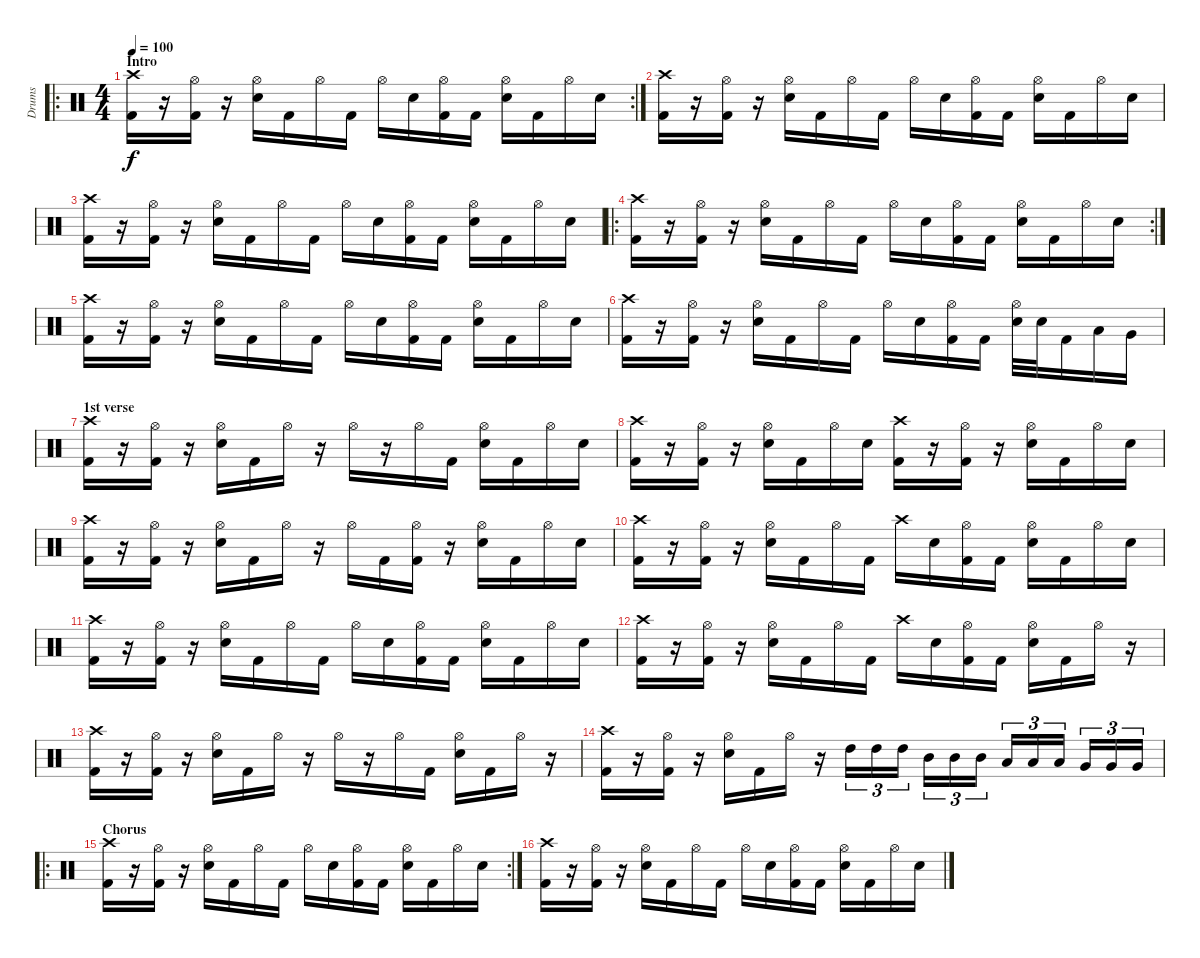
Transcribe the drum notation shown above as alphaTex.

\track ("Drums" "Drums") {instrument percussion}
\staff {score}
\articulation defaults
\ro
\rc 2
\ts (4 4)
\section ("" "Intro")
\tempo 100
\clef neutral
\ks c
("Crash high (hit)" "Kick (hit) 2").16{dy f} r.16 ("Hi-Hat (open)" "Kick (hit) 2").16 r.16 ("Hi-Hat (open)" "Electric Snare (hit)").16 "Kick (hit) 2".16 "Hi-Hat (open)".16 "Kick (hit) 2".16 "Hi-Hat (open)".16 "Electric Snare (hit)".16 ("Hi-Hat (open)" "Kick (hit) 2").16 "Kick (hit) 2".16 ("Hi-Hat (open)" "Electric Snare (hit)").16 "Kick (hit) 2".16 "Hi-Hat (open)".16 "Electric Snare (hit)".16 |
("Crash high (hit)" "Kick (hit) 2").16 r.16 ("Hi-Hat (open)" "Kick (hit) 2").16 r.16 ("Hi-Hat (open)" "Electric Snare (hit)").16 "Kick (hit) 2".16 "Hi-Hat (open)".16 "Kick (hit) 2".16 "Hi-Hat (open)".16 "Electric Snare (hit)".16 ("Hi-Hat (open)" "Kick (hit) 2").16 "Kick (hit) 2".16 ("Hi-Hat (open)" "Electric Snare (hit)").16 "Kick (hit) 2".16 "Hi-Hat (open)".16 "Electric Snare (hit)".16 |
("Crash high (hit)" "Kick (hit) 2").16 r.16 ("Hi-Hat (open)" "Kick (hit) 2").16 r.16 ("Hi-Hat (open)" "Electric Snare (hit)").16 "Kick (hit) 2".16 "Hi-Hat (open)".16 "Kick (hit) 2".16 "Hi-Hat (open)".16 "Electric Snare (hit)".16 ("Hi-Hat (open)" "Kick (hit) 2").16 "Kick (hit) 2".16 ("Hi-Hat (open)" "Electric Snare (hit)").16 "Kick (hit) 2".16 "Hi-Hat (open)".16 "Electric Snare (hit)".16 |
\ro
\rc 2
("Crash high (hit)" "Kick (hit) 2").16 r.16 ("Hi-Hat (open)" "Kick (hit) 2").16 r.16 ("Hi-Hat (open)" "Electric Snare (hit)").16 "Kick (hit) 2".16 "Hi-Hat (open)".16 "Kick (hit) 2".16 "Hi-Hat (open)".16 "Electric Snare (hit)".16 ("Hi-Hat (open)" "Kick (hit) 2").16 "Kick (hit) 2".16 ("Hi-Hat (open)" "Electric Snare (hit)").16 "Kick (hit) 2".16 "Hi-Hat (open)".16 "Electric Snare (hit)".16 |
("Crash high (hit)" "Kick (hit) 2").16 r.16 ("Hi-Hat (open)" "Kick (hit) 2").16 r.16 ("Hi-Hat (open)" "Electric Snare (hit)").16 "Kick (hit) 2".16 "Hi-Hat (open)".16 "Kick (hit) 2".16 "Hi-Hat (open)".16 "Electric Snare (hit)".16 ("Hi-Hat (open)" "Kick (hit) 2").16 "Kick (hit) 2".16 ("Hi-Hat (open)" "Electric Snare (hit)").16 "Kick (hit) 2".16 "Hi-Hat (open)".16 "Electric Snare (hit)".16 |
("Crash high (hit)" "Kick (hit) 2").16 r.16 ("Hi-Hat (open)" "Kick (hit) 2").16 r.16 ("Hi-Hat (open)" "Electric Snare (hit)").16 "Kick (hit) 2".16 "Hi-Hat (open)".16 "Kick (hit) 2".16 "Hi-Hat (open)".16 "Electric Snare (hit)".16 ("Hi-Hat (open)" "Kick (hit) 2").16 "Kick (hit) 2".16 ("Hi-Hat (open)" "Electric Snare (hit)").32 "Electric Snare (hit)".32 "Kick (hit) 2".16 "Low Tom (hit)".16 "Very Low Tom (hit)".16 |
\section ("" "1st verse")
("Crash high (hit)" "Kick (hit) 2").16 r.16 ("Hi-Hat (open)" "Kick (hit) 2").16 r.16 ("Hi-Hat (open)" "Electric Snare (hit)").16 "Kick (hit) 2".16 "Hi-Hat (open)".16 r.16 "Hi-Hat (open)".16 r.16 "Hi-Hat (open)".16 "Kick (hit) 2".16 ("Hi-Hat (open)" "Electric Snare (hit)").16 "Kick (hit) 2".16 "Hi-Hat (open)".16 "Electric Snare (hit)".16 |
("Crash high (hit)" "Kick (hit) 2").16 r.16 ("Hi-Hat (open)" "Kick (hit) 2").16 r.16 ("Hi-Hat (open)" "Electric Snare (hit)").16 "Kick (hit) 2".16 "Hi-Hat (open)".16 "Electric Snare (hit)".16 ("Crash high (hit)" "Kick (hit) 2").16 r.16 ("Hi-Hat (open)" "Kick (hit) 2").16 r.16 ("Hi-Hat (open)" "Electric Snare (hit)").16 "Kick (hit) 2".16 "Hi-Hat (open)".16 "Electric Snare (hit)".16 |
("Crash high (hit)" "Kick (hit) 2").16 r.16 ("Hi-Hat (open)" "Kick (hit) 2").16 r.16 ("Hi-Hat (open)" "Electric Snare (hit)").16 "Kick (hit) 2".16 "Hi-Hat (open)".16 r.16 "Hi-Hat (open)".16 "Kick (hit) 2".16 ("Hi-Hat (open)" "Kick (hit) 2").16 r.16 ("Hi-Hat (open)" "Electric Snare (hit)").16 "Kick (hit) 2".16 "Hi-Hat (open)".16 "Electric Snare (hit)".16 |
("Crash high (hit)" "Kick (hit) 2").16 r.16 ("Hi-Hat (open)" "Kick (hit) 2").16 r.16 ("Hi-Hat (open)" "Electric Snare (hit)").16 "Kick (hit) 2".16 "Hi-Hat (open)".16 "Kick (hit) 2".16 "Crash high (hit)".16 "Electric Snare (hit)".16 ("Hi-Hat (open)" "Kick (hit) 2").16 "Kick (hit) 2".16 ("Hi-Hat (open)" "Electric Snare (hit)").16 "Kick (hit) 2".16 "Hi-Hat (open)".16 "Electric Snare (hit)".16 |
("Crash high (hit)" "Kick (hit) 2").16 r.16 ("Hi-Hat (open)" "Kick (hit) 2").16 r.16 ("Hi-Hat (open)" "Electric Snare (hit)").16 "Kick (hit) 2".16 "Hi-Hat (open)".16 "Kick (hit) 2".16 "Hi-Hat (open)".16 "Electric Snare (hit)".16 ("Hi-Hat (open)" "Kick (hit) 2").16 "Kick (hit) 2".16 ("Hi-Hat (open)" "Electric Snare (hit)").16 "Kick (hit) 2".16 "Hi-Hat (open)".16 "Electric Snare (hit)".16 |
("Crash high (hit)" "Kick (hit) 2").16 r.16 ("Hi-Hat (open)" "Kick (hit) 2").16 r.16 ("Hi-Hat (open)" "Electric Snare (hit)").16 "Kick (hit) 2".16 "Hi-Hat (open)".16 "Kick (hit) 2".16 "Crash high (hit)".16 "Electric Snare (hit)".16 ("Hi-Hat (open)" "Kick (hit) 2").16 "Kick (hit) 2".16 ("Hi-Hat (open)" "Electric Snare (hit)").16 "Kick (hit) 2".16 "Hi-Hat (open)".16 r.16 |
("Crash high (hit)" "Kick (hit) 2").16 r.16 ("Hi-Hat (open)" "Kick (hit) 2").16 r.16 ("Hi-Hat (open)" "Electric Snare (hit)").16 "Kick (hit) 2".16 "Hi-Hat (open)".16 r.16 "Hi-Hat (open)".16 r.16 "Hi-Hat (open)".16 "Kick (hit) 2".16 ("Hi-Hat (open)" "Electric Snare (hit)").16 "Kick (hit) 2".16 "Hi-Hat (open)".16 r.16 |
("Crash high (hit)" "Kick (hit) 2").16 r.16 ("Hi-Hat (open)" "Kick (hit) 2").16 r.16 ("Hi-Hat (open)" "Electric Snare (hit)").16 "Kick (hit) 2".16 "Hi-Hat (open)".16 r.16 "High Tom (hit)".16{tu (3 2)} "High Tom (hit)".16{tu (3 2)} "High Tom (hit)".16{tu (3 2)} "Mid Tom (hit)".16{tu (3 2)} "Mid Tom (hit)".16{tu (3 2)} "Mid Tom (hit)".16{tu (3 2)} "Low Tom (hit)".16{tu (3 2)} "Low Tom (hit)".16{tu (3 2)} "Low Tom (hit)".16{tu (3 2)} "Very Low Tom (hit)".16{tu (3 2)} "Very Low Tom (hit)".16{tu (3 2)} "Very Low Tom (hit)".16{tu (3 2)} |
\ro
\rc 2
\section ("" "Chorus")
("Crash high (hit)" "Kick (hit) 2").16 r.16 ("Hi-Hat (open)" "Kick (hit) 2").16 r.16 ("Hi-Hat (open)" "Electric Snare (hit)").16 "Kick (hit) 2".16 "Hi-Hat (open)".16 "Kick (hit) 2".16 "Hi-Hat (open)".16 "Electric Snare (hit)".16 ("Hi-Hat (open)" "Kick (hit) 2").16 "Kick (hit) 2".16 ("Hi-Hat (open)" "Electric Snare (hit)").16 "Kick (hit) 2".16 "Hi-Hat (open)".16 "Electric Snare (hit)".16 |
("Crash high (hit)" "Kick (hit) 2").16 r.16 ("Hi-Hat (open)" "Kick (hit) 2").16 r.16 ("Hi-Hat (open)" "Electric Snare (hit)").16 "Kick (hit) 2".16 "Hi-Hat (open)".16 "Kick (hit) 2".16 "Hi-Hat (open)".16 "Electric Snare (hit)".16 ("Hi-Hat (open)" "Kick (hit) 2").16 "Kick (hit) 2".16 ("Hi-Hat (open)" "Electric Snare (hit)").16 "Kick (hit) 2".16 "Hi-Hat (open)".16 "Electric Snare (hit)".16
